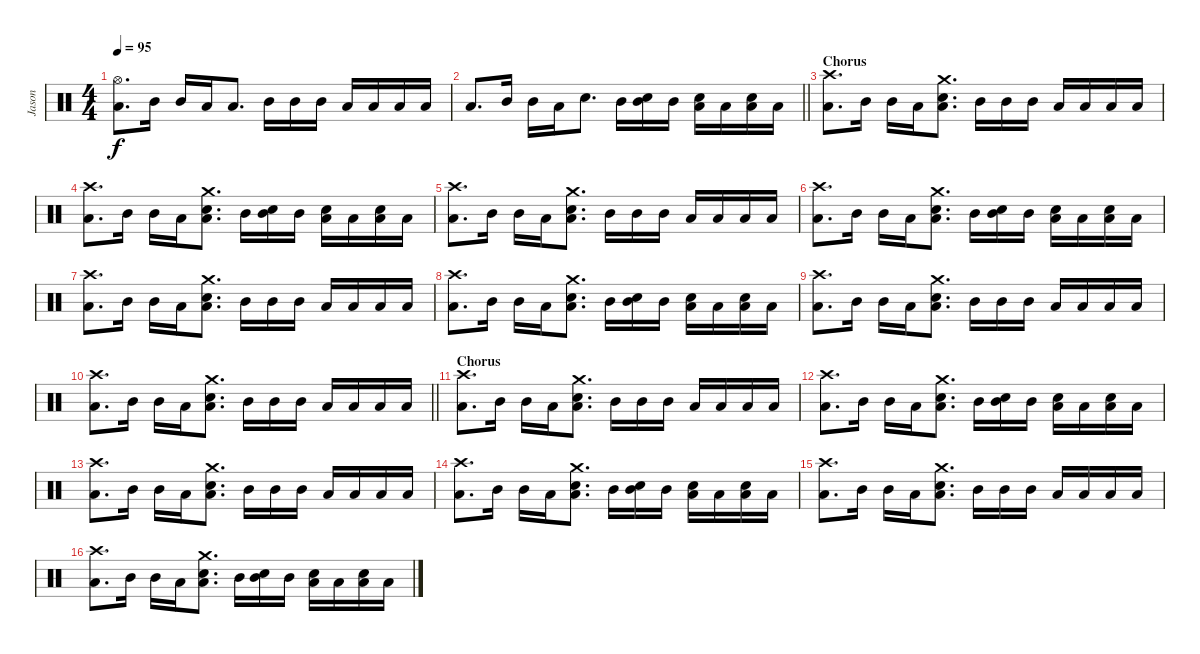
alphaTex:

\track ("Jason" "Jason") {instrument percussion}
\staff {score}
\articulation defaults
\ts (4 4)
\tempo 95
\clef neutral
\ks c
("Hi-Hat (open)" "Low Floor Tom (hit)").8{d dy f} "Mid Tom (hit)".16 "Mid Tom (hit)".16 "Low Tom (hit)".16 "Low Floor Tom (hit)".8{d} "Mid Tom (hit)".16 "Mid Tom (hit)".16 "Mid Tom (hit)".16 "Low Tom (hit)".16 "Low Tom (hit)".16 "Low Tom (hit)".16 "Low Tom (hit)".16 |
\barLineRight lightlight "Low Floor Tom (hit)".8{d} "Mid Tom (hit)".16 "Mid Tom (hit)".16 "Low Tom (hit)".16 "Electric Snare (hit)".8{d} "Mid Tom (hit)".16
("Mid Tom (hit)" "Electric Snare (hit)").16 "Mid Tom (hit)".16 ("Low Tom (hit)" "Electric Snare (hit)").16 "Low Tom (hit)".16 ("Low Tom (hit)" "Electric Snare (hit)").16 "Low Tom (hit)".16 |
\section ("" "Chorus")
("Crash high (hit)" "Low Floor Tom (hit)").8{d} "Mid Tom (hit)".16 "Mid Tom (hit)".16 "Low Tom (hit)".16 ("Crash medium (hit)" "Electric Snare (hit)" "Low Floor Tom (hit)").8{d} "Mid Tom (hit)".16 "Mid Tom (hit)".16 "Mid Tom (hit)".16 "Low Tom (hit)".16 "Low Tom (hit)".16 "Low Tom (hit)".16 "Low Tom (hit)".16 |
("Crash high (hit)" "Low Floor Tom (hit)").8{d} "Mid Tom (hit)".16 "Mid Tom (hit)".16 "Low Tom (hit)".16 ("Crash medium (hit)" "Electric Snare (hit)" "Low Floor Tom (hit)").8{d} "Mid Tom (hit)".16 ("Mid Tom (hit)" "Electric Snare (hit)").16 "Mid Tom (hit)".16 ("Low Tom (hit)" "Electric Snare (hit)").16 "Low Tom (hit)".16 ("Low Tom (hit)" "Electric Snare (hit)").16 "Low Tom (hit)".16 |
("Crash high (hit)" "Low Floor Tom (hit)").8{d} "Mid Tom (hit)".16 "Mid Tom (hit)".16 "Low Tom (hit)".16 ("Crash medium (hit)" "Electric Snare (hit)" "Low Floor Tom (hit)").8{d} "Mid Tom (hit)".16 "Mid Tom (hit)".16 "Mid Tom (hit)".16 "Low Tom (hit)".16 "Low Tom (hit)".16 "Low Tom (hit)".16 "Low Tom (hit)".16 |
("Crash high (hit)" "Low Floor Tom (hit)").8{d} "Mid Tom (hit)".16 "Mid Tom (hit)".16 "Low Tom (hit)".16 ("Crash medium (hit)" "Electric Snare (hit)" "Low Floor Tom (hit)").8{d} "Mid Tom (hit)".16 ("Mid Tom (hit)" "Electric Snare (hit)").16 "Mid Tom (hit)".16 ("Low Tom (hit)" "Electric Snare (hit)").16 "Low Tom (hit)".16 ("Low Tom (hit)" "Electric Snare (hit)").16 "Low Tom (hit)".16 |
("Crash high (hit)" "Low Floor Tom (hit)").8{d} "Mid Tom (hit)".16 "Mid Tom (hit)".16 "Low Tom (hit)".16 ("Crash medium (hit)" "Electric Snare (hit)" "Low Floor Tom (hit)").8{d} "Mid Tom (hit)".16 "Mid Tom (hit)".16 "Mid Tom (hit)".16 "Low Tom (hit)".16 "Low Tom (hit)".16 "Low Tom (hit)".16 "Low Tom (hit)".16 |
("Crash high (hit)" "Low Floor Tom (hit)").8{d} "Mid Tom (hit)".16 "Mid Tom (hit)".16 "Low Tom (hit)".16 ("Crash medium (hit)" "Electric Snare (hit)" "Low Floor Tom (hit)").8{d} "Mid Tom (hit)".16 ("Mid Tom (hit)" "Electric Snare (hit)").16 "Mid Tom (hit)".16 ("Low Tom (hit)" "Electric Snare (hit)").16 "Low Tom (hit)".16 ("Low Tom (hit)" "Electric Snare (hit)").16 "Low Tom (hit)".16 |
("Crash high (hit)" "Low Floor Tom (hit)").8{d} "Mid Tom (hit)".16 "Mid Tom (hit)".16 "Low Tom (hit)".16 ("Crash medium (hit)" "Electric Snare (hit)" "Low Floor Tom (hit)").8{d} "Mid Tom (hit)".16 "Mid Tom (hit)".16 "Mid Tom (hit)".16 "Low Tom (hit)".16 "Low Tom (hit)".16 "Low Tom (hit)".16 "Low Tom (hit)".16 |
\barLineRight lightlight
("Crash high (hit)" "Low Floor Tom (hit)").8{d} "Mid Tom (hit)".16 "Mid Tom (hit)".16 "Low Tom (hit)".16 ("Crash medium (hit)" "Electric Snare (hit)" "Low Floor Tom (hit)").8{d} "Mid Tom (hit)".16 "Mid Tom (hit)".16 "Mid Tom (hit)".16 "Low Tom (hit)".16 "Low Tom (hit)".16 "Low Tom (hit)".16 "Low Tom (hit)".16 |
\section ("" "Chorus")
("Crash high (hit)" "Low Floor Tom (hit)").8{d} "Mid Tom (hit)".16 "Mid Tom (hit)".16 "Low Tom (hit)".16 ("Crash medium (hit)" "Electric Snare (hit)" "Low Floor Tom (hit)").8{d} "Mid Tom (hit)".16 "Mid Tom (hit)".16 "Mid Tom (hit)".16 "Low Tom (hit)".16 "Low Tom (hit)".16 "Low Tom (hit)".16 "Low Tom (hit)".16 |
("Crash high (hit)" "Low Floor Tom (hit)").8{d} "Mid Tom (hit)".16 "Mid Tom (hit)".16 "Low Tom (hit)".16 ("Crash medium (hit)" "Electric Snare (hit)" "Low Floor Tom (hit)").8{d} "Mid Tom (hit)".16 ("Mid Tom (hit)" "Electric Snare (hit)").16 "Mid Tom (hit)".16 ("Low Tom (hit)" "Electric Snare (hit)").16 "Low Tom (hit)".16 ("Low Tom (hit)" "Electric Snare (hit)").16 "Low Tom (hit)".16 |
("Crash high (hit)" "Low Floor Tom (hit)").8{d} "Mid Tom (hit)".16 "Mid Tom (hit)".16 "Low Tom (hit)".16 ("Crash medium (hit)" "Electric Snare (hit)" "Low Floor Tom (hit)").8{d} "Mid Tom (hit)".16 "Mid Tom (hit)".16 "Mid Tom (hit)".16 "Low Tom (hit)".16 "Low Tom (hit)".16 "Low Tom (hit)".16 "Low Tom (hit)".16 |
("Crash high (hit)" "Low Floor Tom (hit)").8{d} "Mid Tom (hit)".16 "Mid Tom (hit)".16 "Low Tom (hit)".16 ("Crash medium (hit)" "Electric Snare (hit)" "Low Floor Tom (hit)").8{d} "Mid Tom (hit)".16 ("Mid Tom (hit)" "Electric Snare (hit)").16 "Mid Tom (hit)".16 ("Low Tom (hit)" "Electric Snare (hit)").16 "Low Tom (hit)".16 ("Low Tom (hit)" "Electric Snare (hit)").16 "Low Tom (hit)".16 |
("Crash high (hit)" "Low Floor Tom (hit)").8{d} "Mid Tom (hit)".16 "Mid Tom (hit)".16 "Low Tom (hit)".16 ("Crash medium (hit)" "Electric Snare (hit)" "Low Floor Tom (hit)").8{d} "Mid Tom (hit)".16 "Mid Tom (hit)".16 "Mid Tom (hit)".16 "Low Tom (hit)".16 "Low Tom (hit)".16 "Low Tom (hit)".16 "Low Tom (hit)".16 |
("Crash high (hit)" "Low Floor Tom (hit)").8{d} "Mid Tom (hit)".16 "Mid Tom (hit)".16 "Low Tom (hit)".16 ("Crash medium (hit)" "Electric Snare (hit)" "Low Floor Tom (hit)").8{d} "Mid Tom (hit)".16 ("Mid Tom (hit)" "Electric Snare (hit)").16 "Mid Tom (hit)".16 ("Low Tom (hit)" "Electric Snare (hit)").16 "Low Tom (hit)".16 ("Low Tom (hit)" "Electric Snare (hit)").16 "Low Tom (hit)".16
